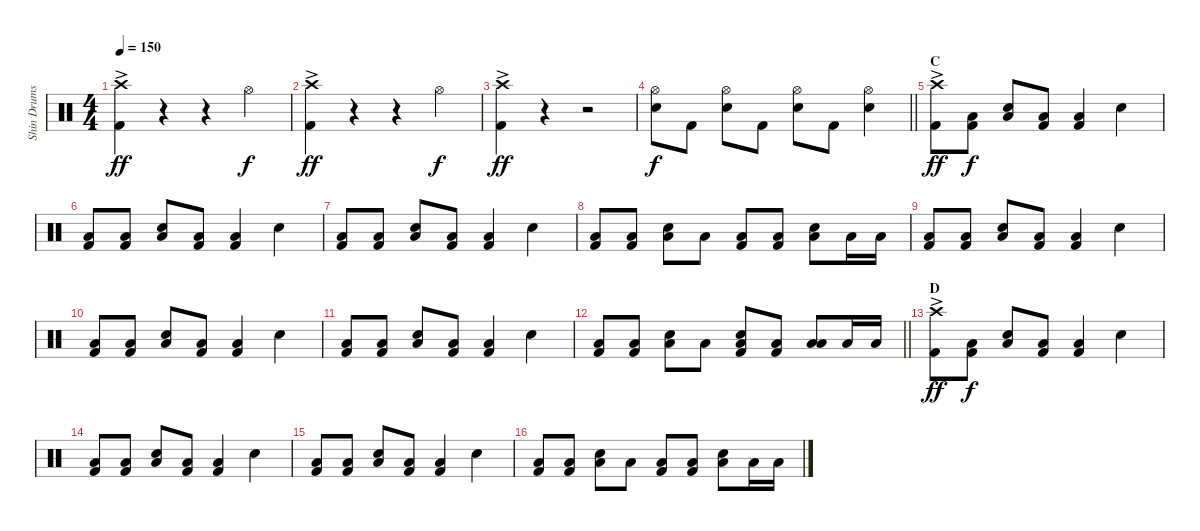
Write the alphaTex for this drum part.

\track ("Shin Drums" "Shin Drums") {instrument percussion}
\staff {score}
\articulation defaults
\ts (4 4)
\tempo 150
\clef neutral
\ks c
("Crash high (hit)"{ac} "Kick (hit) 2").4{dy ff} r.4 r.4 "Hi-Hat (open)".4{dy f} |
("Crash high (hit)"{ac} "Kick (hit) 2").4{dy ff} r.4 r.4 "Hi-Hat (open)".4{dy f} |
("Crash high (hit)"{ac} "Kick (hit) 2").4{dy ff} r.4 r.2 |
\barLineRight lightlight
("Hi-Hat (open)" "Snare (hit) 2").8{dy f} "Kick (hit) 2".8 ("Hi-Hat (open)" "Snare (hit) 2").8 "Kick (hit) 2".8 ("Hi-Hat (open)" "Snare (hit) 2").8 "Kick (hit) 2".8 ("Hi-Hat (open)" "Snare (hit) 2").4 |
\section ("" "C")
("Crash high (hit)"{ac} "Kick (hit) 2").8{dy ff} ("Low Floor Tom (hit)" "Kick (hit) 2").8{dy f} ("Snare (hit) 2" "Low Floor Tom (hit)").8 ("Low Floor Tom (hit)" "Kick (hit) 2").8 ("Low Floor Tom (hit)" "Kick (hit) 2").4 "Snare (hit) 2".4 |
("Low Floor Tom (hit)" "Kick (hit) 2").8 ("Low Floor Tom (hit)" "Kick (hit) 2").8 ("Snare (hit) 2" "Low Floor Tom (hit)").8 ("Low Floor Tom (hit)" "Kick (hit) 2").8 ("Low Floor Tom (hit)" "Kick (hit) 2").4 "Snare (hit) 2".4 |
("Low Floor Tom (hit)" "Kick (hit) 2").8 ("Low Floor Tom (hit)" "Kick (hit) 2").8 ("Snare (hit) 2" "Low Floor Tom (hit)").8 ("Low Floor Tom (hit)" "Kick (hit) 2").8 ("Low Floor Tom (hit)" "Kick (hit) 2").4 "Snare (hit) 2".4 |
("Low Floor Tom (hit)" "Kick (hit) 2").8 ("Low Floor Tom (hit)" "Kick (hit) 2").8 ("Snare (hit) 2" "Low Floor Tom (hit)").8 "Low Floor Tom (hit)".8 ("Low Floor Tom (hit)" "Kick (hit) 2").8 ("Low Floor Tom (hit)" "Kick (hit) 2").8 ("Snare (hit) 2" "Low Floor Tom (hit)").8 "Low Floor Tom (hit)".16 "Low Floor Tom (hit)".16 |
("Low Floor Tom (hit)" "Kick (hit) 2").8 ("Low Floor Tom (hit)" "Kick (hit) 2").8 ("Snare (hit) 2" "Low Floor Tom (hit)").8 ("Low Floor Tom (hit)" "Kick (hit) 2").8 ("Low Floor Tom (hit)" "Kick (hit) 2").4 "Snare (hit) 2".4 |
("Low Floor Tom (hit)" "Kick (hit) 2").8 ("Low Floor Tom (hit)" "Kick (hit) 2").8 ("Snare (hit) 2" "Low Floor Tom (hit)").8 ("Low Floor Tom (hit)" "Kick (hit) 2").8 ("Low Floor Tom (hit)" "Kick (hit) 2").4 "Snare (hit) 2".4 |
("Low Floor Tom (hit)" "Kick (hit) 2").8 ("Low Floor Tom (hit)" "Kick (hit) 2").8 ("Snare (hit) 2" "Low Floor Tom (hit)").8 ("Low Floor Tom (hit)" "Kick (hit) 2").8 ("Low Floor Tom (hit)" "Kick (hit) 2").4 "Snare (hit) 2".4 |
\barLineRight lightlight
("Low Floor Tom (hit)" "Kick (hit) 2").8 ("Low Floor Tom (hit)" "Kick (hit) 2").8 ("Snare (hit) 2" "Low Floor Tom (hit)").8 "Low Floor Tom (hit)".8 ("Snare (hit) 2" "Low Floor Tom (hit)" "Kick (hit) 2").8 ("Low Floor Tom (hit)" "Kick (hit) 2").8 ("Low Tom (hit)" "Low Floor Tom (hit)").8 "Low Floor Tom (hit)".16 "Low Floor Tom (hit)".16 |
\section ("" "D")
("Crash high (hit)"{ac} "Kick (hit) 2").8{dy ff} ("Low Floor Tom (hit)" "Kick (hit) 2").8{dy f} ("Snare (hit) 2" "Low Floor Tom (hit)").8 ("Low Floor Tom (hit)" "Kick (hit) 2").8 ("Low Floor Tom (hit)" "Kick (hit) 2").4 "Snare (hit) 2".4 |
("Low Floor Tom (hit)" "Kick (hit) 2").8 ("Low Floor Tom (hit)" "Kick (hit) 2").8 ("Snare (hit) 2" "Low Floor Tom (hit)").8 ("Low Floor Tom (hit)" "Kick (hit) 2").8 ("Low Floor Tom (hit)" "Kick (hit) 2").4 "Snare (hit) 2".4 |
("Low Floor Tom (hit)" "Kick (hit) 2").8 ("Low Floor Tom (hit)" "Kick (hit) 2").8 ("Snare (hit) 2" "Low Floor Tom (hit)").8 ("Low Floor Tom (hit)" "Kick (hit) 2").8 ("Low Floor Tom (hit)" "Kick (hit) 2").4 "Snare (hit) 2".4 |
("Low Floor Tom (hit)" "Kick (hit) 2").8 ("Low Floor Tom (hit)" "Kick (hit) 2").8 ("Snare (hit) 2" "Low Floor Tom (hit)").8 "Low Floor Tom (hit)".8 ("Low Floor Tom (hit)" "Kick (hit) 2").8 ("Low Floor Tom (hit)" "Kick (hit) 2").8 ("Snare (hit) 2" "Low Floor Tom (hit)").8 "Low Floor Tom (hit)".16 "Low Floor Tom (hit)".16
